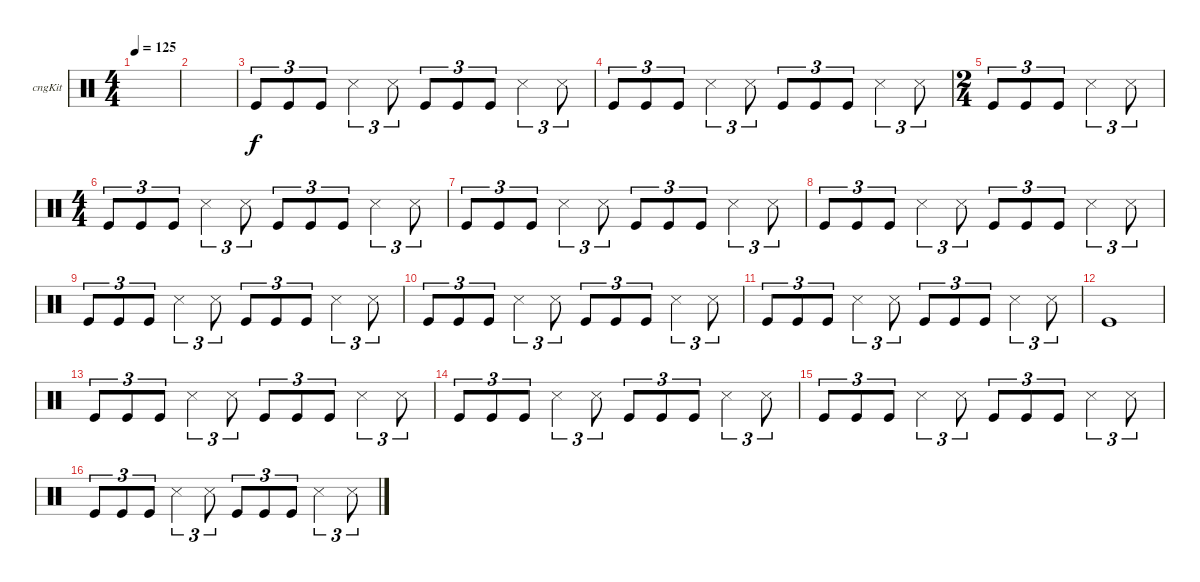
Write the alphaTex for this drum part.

\defaultSystemsLayout 4
\bracketExtendMode groupsimilarinstruments
\firstSystemTrackNameOrientation horizontal
\otherSystemsTrackNameOrientation horizontal
\track ("Congas" "cngKit") {instrument percussion}
\staff {score}
\articulation defaults
\ts (4 4)
\tempo 125
\clef neutral
\scale
0.333333
\ks c
|
\scale
0.333333 |
\scale
0.262911 "Kick (hit)".8{tu (3 2)} "Kick (hit)".8{tu (3 2)} "Kick (hit)".8{tu (3 2)} "Snare (side stick) 3".4{tu (3 2)} "Snare (side stick) 3".8{tu (3 2)} "Kick (hit)".8{tu (3 2)} "Kick (hit)".8{tu (3 2)} "Kick (hit)".8{tu (3 2)} "Snare (side stick) 3".4{tu (3 2)} "Snare (side stick) 3".8{tu (3 2)} |
\scale
0.262911 "Kick (hit)".8{tu (3 2)} "Kick (hit)".8{tu (3 2)} "Kick (hit)".8{tu (3 2)} "Snare (side stick) 3".4{tu (3 2)} "Snare (side stick) 3".8{tu (3 2)} "Kick (hit)".8{tu (3 2)} "Kick (hit)".8{tu (3 2)} "Kick (hit)".8{tu (3 2)} "Snare (side stick) 3".4{tu (3 2)} "Snare (side stick) 3".8{tu (3 2)} |
\ts (2 4)
\scale
0.474178 "Kick (hit)".8{tu (3 2)} "Kick (hit)".8{tu (3 2)} "Kick (hit)".8{tu (3 2)} "Snare (side stick) 3".4{tu (3 2)} "Snare (side stick) 3".8{tu (3 2)} |
\ts (4 4)
\scale
0.474178 "Kick (hit)".8{tu (3 2)} "Kick (hit)".8{tu (3 2)} "Kick (hit)".8{tu (3 2)} "Snare (side stick) 3".4{tu (3 2)} "Snare (side stick) 3".8{tu (3 2)} "Kick (hit)".8{tu (3 2)} "Kick (hit)".8{tu (3 2)} "Kick (hit)".8{tu (3 2)} "Snare (side stick) 3".4{tu (3 2)} "Snare (side stick) 3".8{tu (3 2)} |
\scale
0.262911 "Kick (hit)".8{tu (3 2)} "Kick (hit)".8{tu (3 2)} "Kick (hit)".8{tu (3 2)} "Snare (side stick) 3".4{tu (3 2)} "Snare (side stick) 3".8{tu (3 2)} "Kick (hit)".8{tu (3 2)} "Kick (hit)".8{tu (3 2)} "Kick (hit)".8{tu (3 2)} "Snare (side stick) 3".4{tu (3 2)} "Snare (side stick) 3".8{tu (3 2)} |
\scale
0.262911 "Kick (hit)".8{tu (3 2)} "Kick (hit)".8{tu (3 2)} "Kick (hit)".8{tu (3 2)} "Snare (side stick) 3".4{tu (3 2)} "Snare (side stick) 3".8{tu (3 2)} "Kick (hit)".8{tu (3 2)} "Kick (hit)".8{tu (3 2)} "Kick (hit)".8{tu (3 2)} "Snare (side stick) 3".4{tu (3 2)} "Snare (side stick) 3".8{tu (3 2)} |
\scale
0.333333 "Kick (hit)".8{tu (3 2)} "Kick (hit)".8{tu (3 2)} "Kick (hit)".8{tu (3 2)} "Snare (side stick) 3".4{tu (3 2)} "Snare (side stick) 3".8{tu (3 2)} "Kick (hit)".8{tu (3 2)} "Kick (hit)".8{tu (3 2)} "Kick (hit)".8{tu (3 2)} "Snare (side stick) 3".4{tu (3 2)} "Snare (side stick) 3".8{tu (3 2)} |
\scale
0.333333 "Kick (hit)".8{tu (3 2)} "Kick (hit)".8{tu (3 2)} "Kick (hit)".8{tu (3 2)} "Snare (side stick) 3".4{tu (3 2)} "Snare (side stick) 3".8{tu (3 2)} "Kick (hit)".8{tu (3 2)} "Kick (hit)".8{tu (3 2)} "Kick (hit)".8{tu (3 2)} "Snare (side stick) 3".4{tu (3 2)} "Snare (side stick) 3".8{tu (3 2)} |
\scale
0.333333 "Kick (hit)".8{tu (3 2)} "Kick (hit)".8{tu (3 2)} "Kick (hit)".8{tu (3 2)} "Snare (side stick) 3".4{tu (3 2)} "Snare (side stick) 3".8{tu (3 2)} "Kick (hit)".8{tu (3 2)} "Kick (hit)".8{tu (3 2)} "Kick (hit)".8{tu (3 2)} "Snare (side stick) 3".4{tu (3 2)} "Snare (side stick) 3".8{tu (3 2)} |
\scale
0.333333 "Kick (hit)".1 |
\scale
0.333333 "Kick (hit)".8{tu (3 2)} "Kick (hit)".8{tu (3 2)} "Kick (hit)".8{tu (3 2)} "Snare (side stick) 3".4{tu (3 2)} "Snare (side stick) 3".8{tu (3 2)} "Kick (hit)".8{tu (3 2)} "Kick (hit)".8{tu (3 2)} "Kick (hit)".8{tu (3 2)} "Snare (side stick) 3".4{tu (3 2)} "Snare (side stick) 3".8{tu (3 2)} |
\scale
0.333333 "Kick (hit)".8{tu (3 2)} "Kick (hit)".8{tu (3 2)} "Kick (hit)".8{tu (3 2)} "Snare (side stick) 3".4{tu (3 2)} "Snare (side stick) 3".8{tu (3 2)} "Kick (hit)".8{tu (3 2)} "Kick (hit)".8{tu (3 2)} "Kick (hit)".8{tu (3 2)} "Snare (side stick) 3".4{tu (3 2)} "Snare (side stick) 3".8{tu (3 2)} |
\scale
0.333333 "Kick (hit)".8{tu (3 2)} "Kick (hit)".8{tu (3 2)} "Kick (hit)".8{tu (3 2)} "Snare (side stick) 3".4{tu (3 2)} "Snare (side stick) 3".8{tu (3 2)} "Kick (hit)".8{tu (3 2)} "Kick (hit)".8{tu (3 2)} "Kick (hit)".8{tu (3 2)} "Snare (side stick) 3".4{tu (3 2)} "Snare (side stick) 3".8{tu (3 2)} |
\scale
0.333333 "Kick (hit)".8{tu (3 2)} "Kick (hit)".8{tu (3 2)} "Kick (hit)".8{tu (3 2)} "Snare (side stick) 3".4{tu (3 2)} "Snare (side stick) 3".8{tu (3 2)} "Kick (hit)".8{tu (3 2)} "Kick (hit)".8{tu (3 2)} "Kick (hit)".8{tu (3 2)} "Snare (side stick) 3".4{tu (3 2)} "Snare (side stick) 3".8{tu (3 2)}
